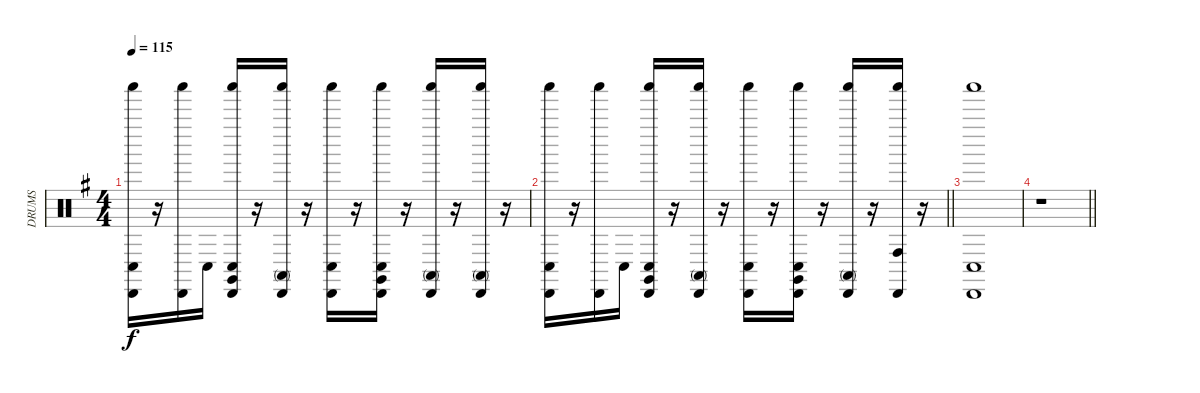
\track ("DRUMS" "DRUMS") {instrument percussion}
\staff {score}
\articulation defaults
\ts (4 4)
\tempo 115
\clef neutral
\ks eminor
("Conga low (hit)" "Cabasa (hit)" "Shaker (hit)").16{dy f} r.16 ("Cabasa (hit)" "Shaker (hit)").16 "Conga low (hit)".16 ("Claves (hit)" "Cabasa (hit)" "Conga low (hit)" "Shaker (hit)").16 r.16 ("Shaker (hit)" "Cabasa (hit)" "Conga high (mute)").16 r.16 ("Conga low (hit)" "Shaker (hit)" "Cabasa (hit)").16 r.16 ("Cabasa (hit)" "Conga low (hit)" "Claves (hit)" "Shaker (hit)").16 r.16 ("Shaker (hit)" "Conga high (mute)" "Cabasa (hit)").16 r.16 ("Shaker (hit)" "Conga high (mute)" "Cabasa (hit)").16 r.16 |
\barLineRight lightlight
("Conga low (hit)" "Cabasa (hit)" "Shaker (hit)").16 r.16 ("Cabasa (hit)" "Shaker (hit)").16 "Conga low (hit)".16 ("Claves (hit)" "Shaker (hit)" "Conga low (hit)" "Cabasa (hit)").16 r.16 ("Cabasa (hit)" "Shaker (hit)" "Conga high (mute)").16 r.16 ("Conga low (hit)" "Cabasa (hit)" "Shaker (hit)").16 r.16 ("Shaker (hit)" "Cabasa (hit)" "Conga low (hit)" "Claves (hit)").16 r.16 ("Cabasa (hit)" "Conga high (mute)" "Shaker (hit)").16 r.16 ("Cabasa (hit)" "Conga high (hit)" "Shaker (hit)").16 r.16 |
("Shaker (hit)" "Cabasa (hit)" "Conga low (hit)").1 |
\barLineRight lightlight
r.1
